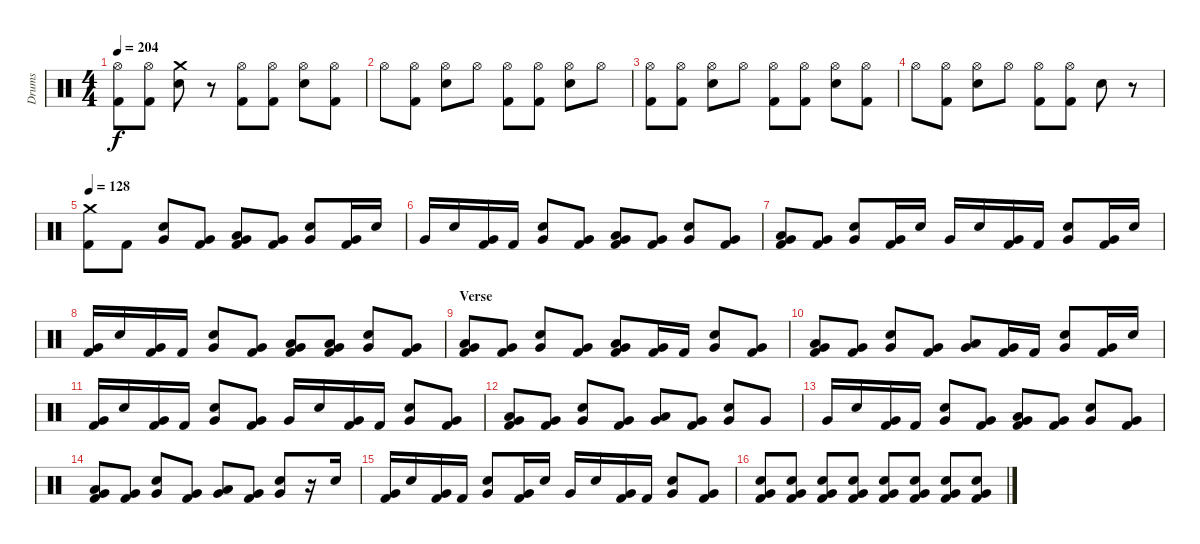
\track ("Drums" "Drums") {instrument percussion}
\staff {score}
\articulation defaults
\ts (4 4)
\tempo 204
\clef neutral
\ks c
("Hi-Hat (open)" "Kick (hit) 2").8{dy f} ("Hi-Hat (open)" "Kick (hit) 2").8 ("Crash medium (hit)" "Snare (hit) 2").8 r.8 ("Hi-Hat (open)" "Kick (hit) 2").8 ("Hi-Hat (open)" "Kick (hit) 2").8 ("Hi-Hat (open)" "Snare (hit) 2").8 ("Hi-Hat (open)" "Kick (hit) 2").8 |
"Hi-Hat (open)".8 ("Hi-Hat (open)" "Kick (hit) 2").8 ("Hi-Hat (open)" "Snare (hit) 2").8 "Hi-Hat (open)".8 ("Hi-Hat (open)" "Kick (hit) 2").8 ("Hi-Hat (open)" "Kick (hit) 2").8 ("Hi-Hat (open)" "Snare (hit) 2").8 "Hi-Hat (open)".8 |
("Hi-Hat (open)" "Kick (hit) 2").8 ("Hi-Hat (open)" "Kick (hit) 2").8 ("Hi-Hat (open)" "Snare (hit) 2").8 "Hi-Hat (open)".8 ("Hi-Hat (open)" "Kick (hit) 2").8 ("Hi-Hat (open)" "Kick (hit) 2").8 ("Hi-Hat (open)" "Snare (hit) 2").8 ("Hi-Hat (open)" "Kick (hit) 2").8 |
"Hi-Hat (open)".8 ("Hi-Hat (open)" "Kick (hit) 2").8 ("Hi-Hat (open)" "Snare (hit) 2").8 "Hi-Hat (open)".8 ("Hi-Hat (open)" "Kick (hit) 2").8 ("Hi-Hat (open)" "Kick (hit) 2").8 "Snare (hit) 2".8 r.8 |
\tempo 128
("Crash medium (hit)" "Kick (hit) 2").8 "Kick (hit) 2".8 ("Snare (hit) 2" "Very Low Tom (hit)").8 ("Kick (hit) 2" "Very Low Tom (hit)").8 ("Kick (hit) 2" "Very Low Tom (hit)" "Low Tom (hit)").8 ("Kick (hit) 2" "Very Low Tom (hit)").8 ("Snare (hit) 2" "Very Low Tom (hit)").8 ("Kick (hit) 2" "Very Low Tom (hit)").16 "Snare (hit) 2".16 |
"Very Low Tom (hit)".16 "Snare (hit) 2".16 ("Kick (hit) 2" "Very Low Tom (hit)").16 "Kick (hit) 2".16 ("Snare (hit) 2" "Very Low Tom (hit)").8 ("Kick (hit) 2" "Very Low Tom (hit)").8 ("Kick (hit) 2" "Very Low Tom (hit)" "Low Tom (hit)").8 ("Kick (hit) 2" "Very Low Tom (hit)").8 ("Snare (hit) 2" "Very Low Tom (hit)").8 ("Kick (hit) 2" "Very Low Tom (hit)").8 |
("Kick (hit) 2" "Very Low Tom (hit)" "Low Tom (hit)").8 ("Kick (hit) 2" "Very Low Tom (hit)").8 ("Snare (hit) 2" "Very Low Tom (hit)").8 ("Kick (hit) 2" "Very Low Tom (hit)").16 "Snare (hit) 2".16 "Very Low Tom (hit)".16 "Snare (hit) 2".16 ("Kick (hit) 2" "Very Low Tom (hit)").16 "Kick (hit) 2".16 ("Snare (hit) 2" "Very Low Tom (hit)").8 ("Kick (hit) 2" "Very Low Tom (hit)").16 "Snare (hit) 2".16 |
("Kick (hit) 2" "Very Low Tom (hit)").16 "Snare (hit) 2".16 ("Kick (hit) 2" "Very Low Tom (hit)").16 "Kick (hit) 2".16 ("Snare (hit) 2" "Very Low Tom (hit)").8 ("Kick (hit) 2" "Very Low Tom (hit)").8 ("Kick (hit) 2" "Very Low Tom (hit)" "Low Tom (hit)").8 ("Kick (hit) 2" "Very Low Tom (hit)" "Low Tom (hit)").8 ("Snare (hit) 2" "Very Low Tom (hit)").8 ("Kick (hit) 2" "Very Low Tom (hit)").8 |
\section ("" "Verse")
("Kick (hit) 2" "Very Low Tom (hit)" "Low Tom (hit)").8 ("Kick (hit) 2" "Very Low Tom (hit)").8 ("Snare (hit) 2" "Very Low Tom (hit)").8 ("Kick (hit) 2" "Very Low Tom (hit)").8 ("Kick (hit) 2" "Very Low Tom (hit)" "Low Tom (hit)").8 ("Kick (hit) 2" "Very Low Tom (hit)").16 "Kick (hit) 2".16 ("Snare (hit) 2" "Very Low Tom (hit)").8 ("Kick (hit) 2" "Very Low Tom (hit)").8 |
("Kick (hit) 2" "Very Low Tom (hit)" "Low Tom (hit)").8 ("Kick (hit) 2" "Very Low Tom (hit)").8 ("Snare (hit) 2" "Very Low Tom (hit)").8 ("Kick (hit) 2" "Very Low Tom (hit)").8 ("Very Low Tom (hit)" "Low Tom (hit)").8 ("Kick (hit) 2" "Very Low Tom (hit)").16 "Kick (hit) 2".16 ("Snare (hit) 2" "Very Low Tom (hit)").8 ("Kick (hit) 2" "Very Low Tom (hit)").16 "Snare (hit) 2".16 |
("Kick (hit) 2" "Very Low Tom (hit)").16 "Snare (hit) 2".16 ("Kick (hit) 2" "Very Low Tom (hit)").16 "Kick (hit) 2".16 ("Snare (hit) 2" "Very Low Tom (hit)").8 ("Kick (hit) 2" "Very Low Tom (hit)").8 "Very Low Tom (hit)".16 "Snare (hit) 2".16 ("Kick (hit) 2" "Very Low Tom (hit)").16 "Kick (hit) 2".16 ("Snare (hit) 2" "Very Low Tom (hit)").8 ("Kick (hit) 2" "Very Low Tom (hit)").8 |
("Kick (hit) 2" "Very Low Tom (hit)" "Low Tom (hit)").8 ("Kick (hit) 2" "Very Low Tom (hit)").8 ("Snare (hit) 2" "Very Low Tom (hit)").8 ("Kick (hit) 2" "Very Low Tom (hit)").8 ("Very Low Tom (hit)" "Low Tom (hit)").8 ("Kick (hit) 2" "Very Low Tom (hit)").8 ("Snare (hit) 2" "Very Low Tom (hit)").8 "Very Low Tom (hit)".8 |
"Very Low Tom (hit)".16 "Snare (hit) 2".16 ("Kick (hit) 2" "Very Low Tom (hit)").16 "Kick (hit) 2".16 ("Snare (hit) 2" "Very Low Tom (hit)").8 ("Kick (hit) 2" "Very Low Tom (hit)").8 ("Kick (hit) 2" "Very Low Tom (hit)" "Low Tom (hit)").8 ("Kick (hit) 2" "Very Low Tom (hit)").8 ("Snare (hit) 2" "Very Low Tom (hit)").8 ("Kick (hit) 2" "Very Low Tom (hit)").8 |
("Kick (hit) 2" "Very Low Tom (hit)" "Low Tom (hit)").8 ("Kick (hit) 2" "Very Low Tom (hit)").8 ("Snare (hit) 2" "Very Low Tom (hit)").8 ("Kick (hit) 2" "Very Low Tom (hit)").8 ("Very Low Tom (hit)" "Low Tom (hit)").8 ("Kick (hit) 2" "Very Low Tom (hit)").8 ("Snare (hit) 2" "Very Low Tom (hit)").8 r.16 "Snare (hit) 2".16 |
("Kick (hit) 2" "Very Low Tom (hit)").16 "Snare (hit) 2".16 ("Kick (hit) 2" "Very Low Tom (hit)").16 "Kick (hit) 2".16 ("Snare (hit) 2" "Very Low Tom (hit)").8 ("Kick (hit) 2" "Very Low Tom (hit)").16 "Snare (hit) 2".16 "Very Low Tom (hit)".16 "Snare (hit) 2".16 ("Kick (hit) 2" "Very Low Tom (hit)").16 "Kick (hit) 2".16 ("Snare (hit) 2" "Very Low Tom (hit)").8 ("Kick (hit) 2" "Very Low Tom (hit)").8 |
("Snare (hit) 2" "Kick (hit) 2" "Very Low Tom (hit)").8 ("Snare (hit) 2" "Kick (hit) 2" "Very Low Tom (hit)").8 ("Snare (hit) 2" "Kick (hit) 2" "Very Low Tom (hit)").8 ("Snare (hit) 2" "Kick (hit) 2" "Very Low Tom (hit)").8 ("Snare (hit) 2" "Kick (hit) 2" "Very Low Tom (hit)").8 ("Snare (hit) 2" "Kick (hit) 2" "Very Low Tom (hit)").8 ("Snare (hit) 2" "Kick (hit) 2" "Very Low Tom (hit)").8 ("Snare (hit) 2" "Kick (hit) 2" "Very Low Tom (hit)").8
